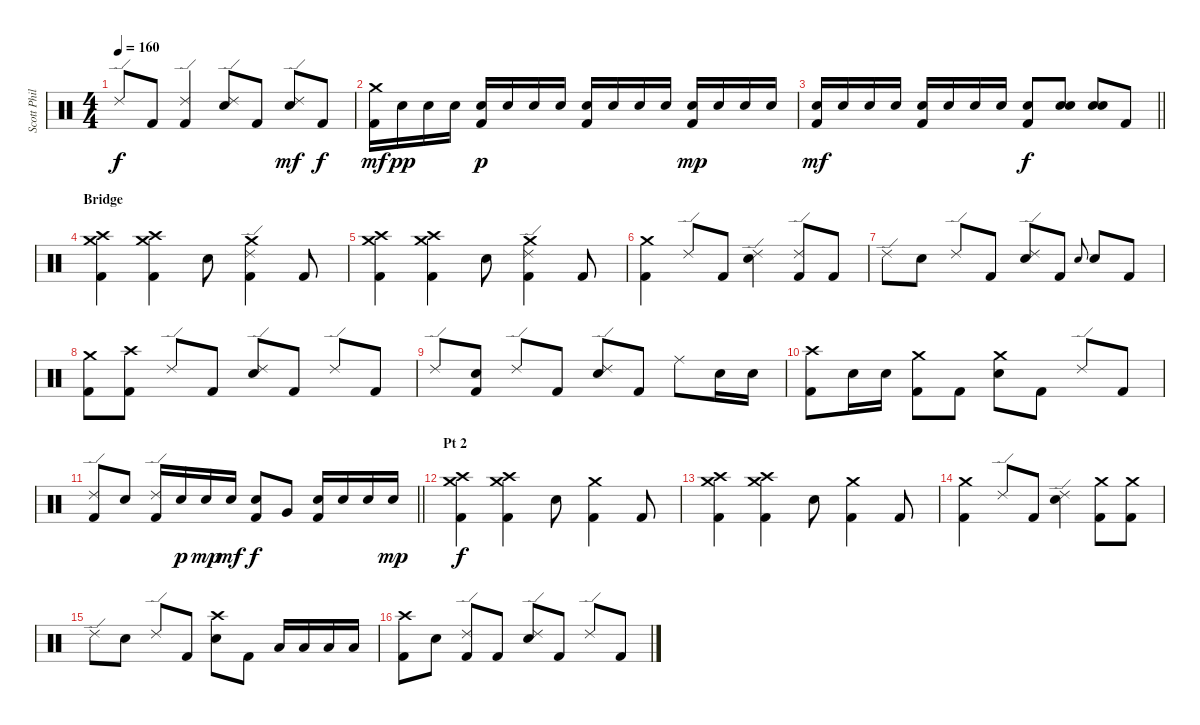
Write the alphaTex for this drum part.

\track ("Scott Phillips [Drums]" "Scott Phil") {instrument percussion}
\staff {score}
\articulation defaults
\ts (4 4)
\tempo 160
\clef neutral
\ks c "Ride (edge) 2".8{dy f} "Kick (hit) 2".8
("Ride (edge) 2" "Kick (hit) 2").4 ("Ride (edge) 2" "Electric Snare (hit)").8 "Kick (hit) 2".8 ("Ride (edge) 2" "Electric Snare (hit)").8{dy mf} "Kick (hit) 2".8{dy f} |
("Crash medium (hit)" "Kick (hit) 2").16{dy mf} "Electric Snare (hit)".16{dy pp} "Electric Snare (hit)".16 "Electric Snare (hit)".16 ("Electric Snare (hit)" "Kick (hit) 2").16{dy p} "Electric Snare (hit)".16 "Electric Snare (hit)".16 "Electric Snare (hit)".16 ("Electric Snare (hit)" "Kick (hit) 2").16 "Electric Snare (hit)".16 "Electric Snare (hit)".16 "Electric Snare (hit)".16 ("Electric Snare (hit)" "Kick (hit) 2").16{dy mp} "Electric Snare (hit)".16 "Electric Snare (hit)".16 "Electric Snare (hit)".16 |
\barLineRight lightlight
("Electric Snare (hit)" "Kick (hit) 2").16{dy mf} "Electric Snare (hit)".16 "Electric Snare (hit)".16 "Electric Snare (hit)".16 ("Electric Snare (hit)" "Kick (hit) 2").16 "Electric Snare (hit)".16 "Electric Snare (hit)".16 "Electric Snare (hit)".16 ("Electric Snare (hit)" "Kick (hit) 2").8{dy f} ("Electric Snare (hit)" "Electric Snare (hit)").8 ("Electric Snare (hit)" "Electric Snare (hit)").8 "Kick (hit) 2".8 |
\section ("" "Bridge")
("Crash high (hit)" "Crash medium (hit)" "Kick (hit) 2").4 ("Crash high (hit)" "Crash medium (hit)" "Kick (hit) 2").4 "Electric Snare (hit)".8 ("Crash medium (hit)" "Ride (edge) 2" "Kick (hit) 2").4 "Kick (hit) 2".8 |
("Crash high (hit)" "Crash medium (hit)" "Kick (hit) 2").4 ("Crash high (hit)" "Crash medium (hit)" "Kick (hit) 2").4 "Electric Snare (hit)".8 ("Crash medium (hit)" "Ride (edge) 2" "Kick (hit) 2").4 "Kick (hit) 2".8 |
("Crash medium (hit)" "Kick (hit) 2").4 "Ride (edge) 2".8 "Kick (hit) 2".8 ("Ride (edge) 2" "Electric Snare (hit)").4 ("Ride (edge) 2" "Kick (hit) 2").8 "Kick (hit) 2".8 |
"Ride (edge) 2".8 "Electric Snare (hit)".8 "Ride (edge) 2".8 "Kick (hit) 2".8 ("Ride (edge) 2" "Electric Snare (hit)").8 "Kick (hit) 2".8 "Electric Snare (hit)".8{gr onbeat} "Electric Snare (hit)".8 "Kick (hit) 2".8 |
("Crash medium (hit)" "Kick (hit) 2").8{volume 16} ("Crash high (hit)" "Kick (hit) 2").8 "Ride (edge) 2".8 "Kick (hit) 2".8 ("Ride (edge) 2" "Electric Snare (hit)").8 "Kick (hit) 2".8 "Ride (edge) 2".8 "Kick (hit) 2".8 |
"Ride (edge) 2".8 ("Electric Snare (hit)" "Kick (hit) 2").8 "Ride (edge) 2".8 "Kick (hit) 2".8 ("Ride (edge) 2" "Electric Snare (hit)").8 "Kick (hit) 2".8 "Ride (middle)".8 "Electric Snare (hit)".16 "Electric Snare (hit)".16 |
("Crash high (hit)" "Kick (hit) 2").8 "Electric Snare (hit)".16 "Electric Snare (hit)".16 ("Crash medium (hit)" "Kick (hit) 2").8 "Kick (hit) 2".8 ("Crash medium (hit)" "Electric Snare (hit)").8 "Kick (hit) 2".8 "Ride (edge) 2".8 "Kick (hit) 2".8 |
\barLineRight lightlight
("Ride (edge) 2" "Kick (hit) 2").8 "Electric Snare (hit)".8 ("Ride (edge) 2" "Kick (hit) 2").16 "Electric Snare (hit)".16{dy p} "Electric Snare (hit)".16{dy mp} "Electric Snare (hit)".16{dy mf} ("Electric Snare (hit)" "Kick (hit) 2").8{dy f} "Very Low Tom (hit)".8 ("Electric Snare (hit)" "Kick (hit) 2").16 "Electric Snare (hit)".16 "Electric Snare (hit)".16 "Electric Snare (hit)".16{dy mp} |
\section ("" "Pt 2")
("Crash high (hit)" "Crash medium (hit)" "Kick (hit) 2").4{dy f} ("Crash high (hit)" "Crash medium (hit)" "Kick (hit) 2").4 "Electric Snare (hit)".8 ("Crash medium (hit)" "Kick (hit) 2").4 "Kick (hit) 2".8 |
("Crash high (hit)" "Crash medium (hit)" "Kick (hit) 2").4 ("Crash high (hit)" "Crash medium (hit)" "Kick (hit) 2").4 "Electric Snare (hit)".8 ("Crash medium (hit)" "Kick (hit) 2").4 "Kick (hit) 2".8 |
("Crash medium (hit)" "Kick (hit) 2").4 "Ride (edge) 2".8 "Kick (hit) 2".8 ("Ride (edge) 2" "Electric Snare (hit)").4 ("Crash medium (hit)" "Kick (hit) 2").8 ("Crash medium (hit)" "Kick (hit) 2").8 |
"Ride (edge) 2".8 "Electric Snare (hit)".8 "Ride (edge) 2".8 "Kick (hit) 2".8 ("Crash high (hit)" "Electric Snare (hit)").8 "Kick (hit) 2".8 "Low Tom (hit)".16 "Low Tom (hit)".16 "Low Tom (hit)".16 "Low Tom (hit)".16 |
("Crash high (hit)" "Kick (hit) 2").8 "Electric Snare (hit)".8 ("Ride (edge) 2" "Kick (hit) 2").8 "Kick (hit) 2".8 ("Ride (edge) 2" "Electric Snare (hit)").8 "Kick (hit) 2".8 "Ride (edge) 2".8 "Kick (hit) 2".8
